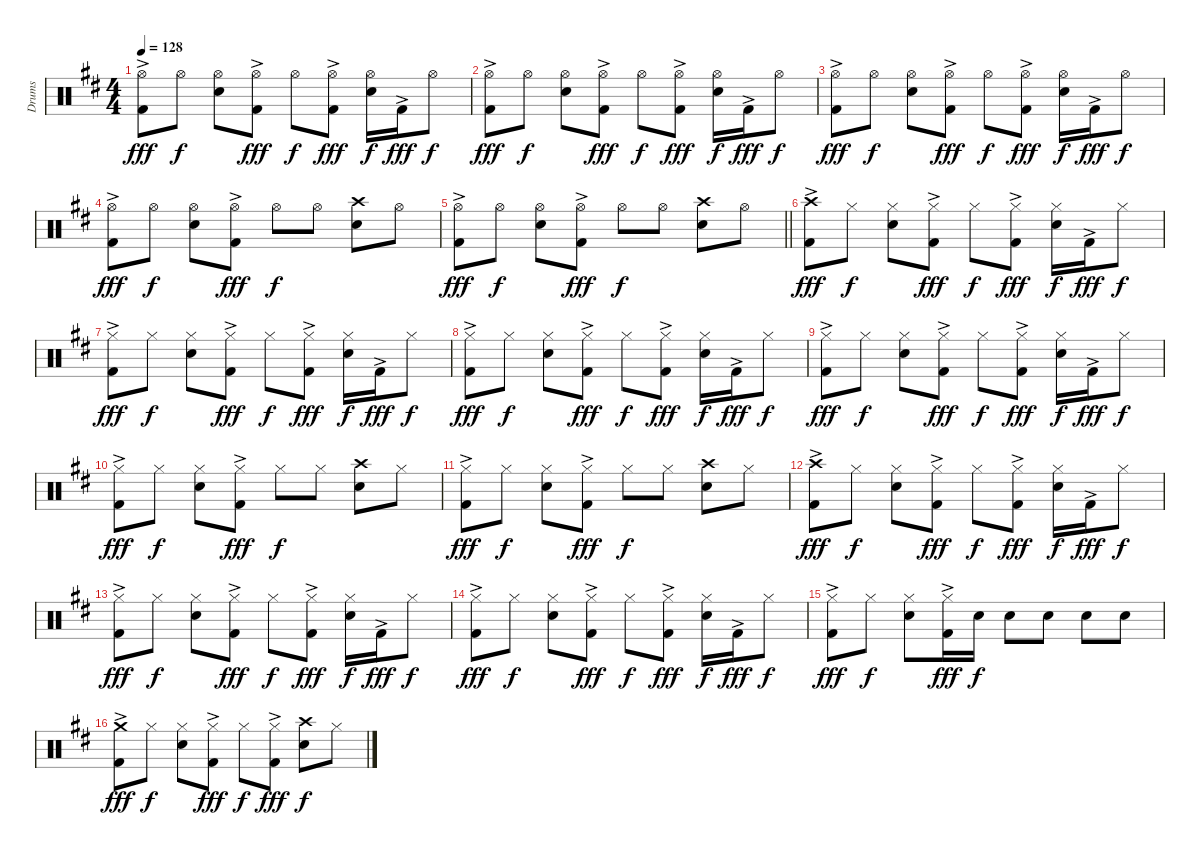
\track ("Drums" "Drums") {instrument percussion}
\staff {score}
\articulation defaults
\ts (4 4)
\tempo 128
\clef neutral
\ks d
("Hi-Hat (open)" "Kick (hit) 2"{ac}).8{dy fff} "Hi-Hat (open)".8{dy f} ("Hi-Hat (open)" "Snare (hit) 2").8 ("Hi-Hat (open)" "Kick (hit) 2"{ac}).8{dy fff} "Hi-Hat (open)".8{dy f} ("Hi-Hat (open)" "Kick (hit) 2"{ac}).8{dy fff} ("Hi-Hat (open)" "Snare (hit) 2").16{dy f} "Kick (hit) 2"{ac}.16{dy fff} "Hi-Hat (open)".8{dy f} |
("Hi-Hat (open)" "Kick (hit) 2"{ac}).8{dy fff} "Hi-Hat (open)".8{dy f} ("Hi-Hat (open)" "Snare (hit) 2").8 ("Hi-Hat (open)" "Kick (hit) 2"{ac}).8{dy fff} "Hi-Hat (open)".8{dy f} ("Hi-Hat (open)" "Kick (hit) 2"{ac}).8{dy fff} ("Hi-Hat (open)" "Snare (hit) 2").16{dy f} "Kick (hit) 2"{ac}.16{dy fff} "Hi-Hat (open)".8{dy f} |
("Hi-Hat (open)" "Kick (hit) 2"{ac}).8{dy fff} "Hi-Hat (open)".8{dy f} ("Hi-Hat (open)" "Snare (hit) 2").8 ("Hi-Hat (open)" "Kick (hit) 2"{ac}).8{dy fff} "Hi-Hat (open)".8{dy f} ("Hi-Hat (open)" "Kick (hit) 2"{ac}).8{dy fff} ("Hi-Hat (open)" "Snare (hit) 2").16{dy f} "Kick (hit) 2"{ac}.16{dy fff} "Hi-Hat (open)".8{dy f} |
("Hi-Hat (open)" "Kick (hit) 2"{ac}).8{dy fff} "Hi-Hat (open)".8{dy f} ("Hi-Hat (open)" "Snare (hit) 2").8 ("Hi-Hat (open)" "Kick (hit) 2"{ac}).8{dy fff} "Hi-Hat (open)".8{dy f} "Hi-Hat (open)".8 ("Crash high (hit)" "Snare (hit) 2").8 "Hi-Hat (open)".8 |
\barLineRight lightlight
("Hi-Hat (open)" "Kick (hit) 2"{ac}).8{dy fff} "Hi-Hat (open)".8{dy f} ("Hi-Hat (open)" "Snare (hit) 2").8 ("Hi-Hat (open)" "Kick (hit) 2"{ac}).8{dy fff} "Hi-Hat (open)".8{dy f} "Hi-Hat (open)".8 ("Crash high (hit)" "Snare (hit) 2").8 "Hi-Hat (open)".8 |
("Crash high (hit)" "Kick (hit) 2"{ac}).8{dy fff} "Hi-Hat (closed)".8{dy f} ("Hi-Hat (closed)" "Snare (hit) 2").8 ("Hi-Hat (closed)" "Kick (hit) 2"{ac}).8{dy fff} "Hi-Hat (closed)".8{dy f} ("Hi-Hat (closed)" "Kick (hit) 2"{ac}).8{dy fff} ("Hi-Hat (closed)" "Snare (hit) 2").16{dy f} "Kick (hit) 2"{ac}.16{dy fff} "Hi-Hat (closed)".8{dy f} |
("Hi-Hat (closed)" "Kick (hit) 2"{ac}).8{dy fff} "Hi-Hat (closed)".8{dy f} ("Hi-Hat (closed)" "Snare (hit) 2").8 ("Hi-Hat (closed)" "Kick (hit) 2"{ac}).8{dy fff} "Hi-Hat (closed)".8{dy f} ("Hi-Hat (closed)" "Kick (hit) 2"{ac}).8{dy fff} ("Hi-Hat (closed)" "Snare (hit) 2").16{dy f} "Kick (hit) 2"{ac}.16{dy fff} "Hi-Hat (closed)".8{dy f} |
("Hi-Hat (closed)" "Kick (hit) 2"{ac}).8{dy fff} "Hi-Hat (closed)".8{dy f} ("Hi-Hat (closed)" "Snare (hit) 2").8 ("Hi-Hat (closed)" "Kick (hit) 2"{ac}).8{dy fff} "Hi-Hat (closed)".8{dy f} ("Hi-Hat (closed)" "Kick (hit) 2"{ac}).8{dy fff} ("Hi-Hat (closed)" "Snare (hit) 2").16{dy f} "Kick (hit) 2"{ac}.16{dy fff} "Hi-Hat (closed)".8{dy f} |
("Hi-Hat (closed)" "Kick (hit) 2"{ac}).8{dy fff} "Hi-Hat (closed)".8{dy f} ("Hi-Hat (closed)" "Snare (hit) 2").8 ("Hi-Hat (closed)" "Kick (hit) 2"{ac}).8{dy fff} "Hi-Hat (closed)".8{dy f} ("Hi-Hat (closed)" "Kick (hit) 2"{ac}).8{dy fff} ("Hi-Hat (closed)" "Snare (hit) 2").16{dy f} "Kick (hit) 2"{ac}.16{dy fff} "Hi-Hat (closed)".8{dy f} |
("Hi-Hat (closed)" "Kick (hit) 2"{ac}).8{dy fff} "Hi-Hat (closed)".8{dy f} ("Hi-Hat (closed)" "Snare (hit) 2").8 ("Hi-Hat (closed)" "Kick (hit) 2"{ac}).8{dy fff} "Hi-Hat (closed)".8{dy f} "Hi-Hat (closed)".8 ("Crash high (hit)" "Snare (hit) 2").8 "Hi-Hat (closed)".8 |
("Hi-Hat (closed)" "Kick (hit) 2"{ac}).8{dy fff} "Hi-Hat (closed)".8{dy f} ("Hi-Hat (closed)" "Snare (hit) 2").8 ("Hi-Hat (closed)" "Kick (hit) 2"{ac}).8{dy fff} "Hi-Hat (closed)".8{dy f} "Hi-Hat (closed)".8 ("Crash high (hit)" "Snare (hit) 2").8 "Hi-Hat (closed)".8 |
("Crash high (hit)" "Kick (hit) 2"{ac}).8{dy fff} "Hi-Hat (closed)".8{dy f} ("Hi-Hat (closed)" "Snare (hit) 2").8 ("Hi-Hat (closed)" "Kick (hit) 2"{ac}).8{dy fff} "Hi-Hat (closed)".8{dy f} ("Hi-Hat (closed)" "Kick (hit) 2"{ac}).8{dy fff} ("Hi-Hat (closed)" "Snare (hit) 2").16{dy f} "Kick (hit) 2"{ac}.16{dy fff} "Hi-Hat (closed)".8{dy f} |
("Hi-Hat (closed)" "Kick (hit) 2"{ac}).8{dy fff} "Hi-Hat (closed)".8{dy f} ("Hi-Hat (closed)" "Snare (hit) 2").8 ("Hi-Hat (closed)" "Kick (hit) 2"{ac}).8{dy fff} "Hi-Hat (closed)".8{dy f} ("Hi-Hat (closed)" "Kick (hit) 2"{ac}).8{dy fff} ("Hi-Hat (closed)" "Snare (hit) 2").16{dy f} "Kick (hit) 2"{ac}.16{dy fff} "Hi-Hat (closed)".8{dy f} |
("Hi-Hat (closed)" "Kick (hit) 2"{ac}).8{dy fff} "Hi-Hat (closed)".8{dy f} ("Hi-Hat (closed)" "Snare (hit) 2").8 ("Hi-Hat (closed)" "Kick (hit) 2"{ac}).8{dy fff} "Hi-Hat (closed)".8{dy f} ("Hi-Hat (closed)" "Kick (hit) 2"{ac}).8{dy fff} ("Hi-Hat (closed)" "Snare (hit) 2").16{dy f} "Kick (hit) 2"{ac}.16{dy fff} "Hi-Hat (closed)".8{dy f} |
("Hi-Hat (closed)" "Kick (hit) 2"{ac}).8{dy fff} "Hi-Hat (closed)".8{dy f} ("Hi-Hat (closed)" "Snare (hit) 2").8 ("Hi-Hat (closed)" "Kick (hit) 2"{ac}).16{dy fff} "Snare (hit) 2".16{dy f} "Snare (hit) 2".8 "Snare (hit) 2".8 "Snare (hit) 2".8 "Snare (hit) 2".8 |
("Crash medium (hit)" "Kick (hit) 2"{ac}).8{dy fff} "Hi-Hat (closed)".8{dy f} ("Hi-Hat (closed)" "Snare (hit) 2").8 ("Hi-Hat (closed)" "Kick (hit) 2"{ac}).8{dy fff} "Hi-Hat (closed)".8{dy f} ("Hi-Hat (closed)" "Kick (hit) 2"{ac}).8{dy fff} ("Crash high (hit)" "Snare (hit) 2").8{dy f} "Hi-Hat (closed)".8
